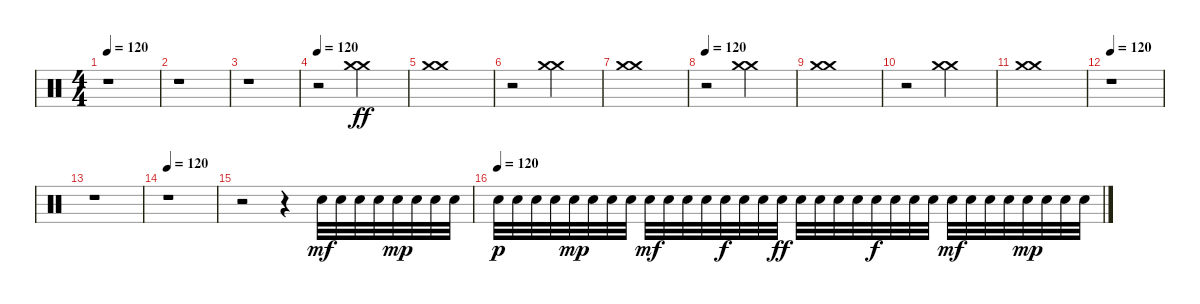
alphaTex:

\track "" {instrument percussion}
\staff {score}
\articulation defaults
\ts (4 4)
\tempo 120
\clef neutral
\ks c
r.1{dy mf} |
r.1 |
r.1 |
\tempo 120
r.2 ("Crash medium (hit)" "Crash medium (hit)").2{dy ff} |
("Crash medium (hit)" "Crash medium (hit)").1 |
r.2 ("Crash medium (hit)" "Crash medium (hit)").2 |
("Crash medium (hit)" "Crash medium (hit)").1 |
\tempo 120
r.2 ("Crash medium (hit)" "Crash medium (hit)").2 |
("Crash medium (hit)" "Crash medium (hit)").1 |
r.2 ("Crash medium (hit)" "Crash medium (hit)").2 |
("Crash medium (hit)" "Crash medium (hit)").1 |
\tempo 120
r.1 |
r.1 |
\tempo 120
r.1 |
r.2 r.4 "Snare (hit) 2".32{dy mf} "Snare (hit) 2".32 "Snare (hit) 2".32 "Snare (hit) 2".32 "Snare (hit) 2".32{dy mp} "Snare (hit) 2".32 "Snare (hit) 2".32 "Snare (hit) 2".32 |
\tempo (120)
"Snare (hit) 2".32{dy p} "Snare (hit) 2".32 "Snare (hit) 2".32 "Snare (hit) 2".32 "Snare (hit) 2".32{dy mp} "Snare (hit) 2".32 "Snare (hit) 2".32 "Snare (hit) 2".32 "Snare (hit) 2".32{dy mf} "Snare (hit) 2".32 "Snare (hit) 2".32 "Snare (hit) 2".32 "Snare (hit) 2".32{dy f} "Snare (hit) 2".32 "Snare (hit) 2".32 "Snare (hit) 2".32{dy ff} "Snare (hit) 2".32 "Snare (hit) 2".32 "Snare (hit) 2".32 "Snare (hit) 2".32 "Snare (hit) 2".32{dy f} "Snare (hit) 2".32 "Snare (hit) 2".32 "Snare (hit) 2".32 "Snare (hit) 2".32{dy mf} "Snare (hit) 2".32 "Snare (hit) 2".32 "Snare (hit) 2".32 "Snare (hit) 2".32{dy mp} "Snare (hit) 2".32 "Snare (hit) 2".32 "Snare (hit) 2".32
